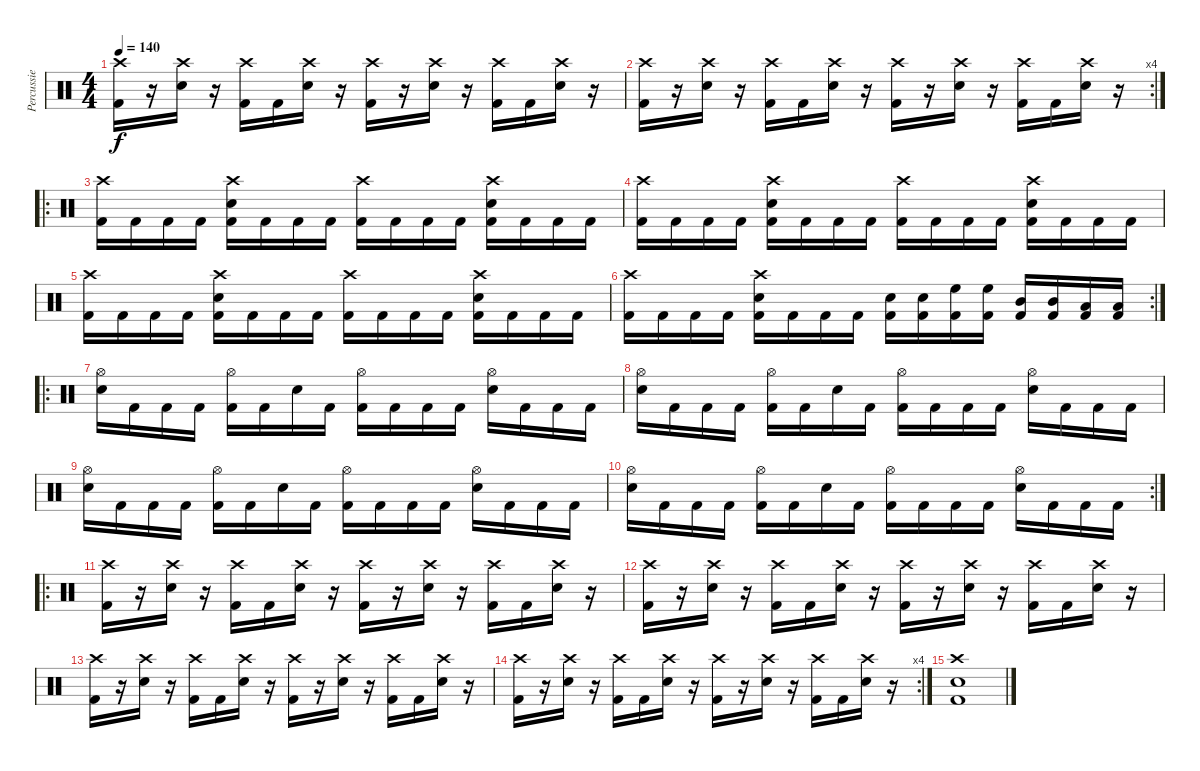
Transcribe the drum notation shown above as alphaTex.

\track ("Percussie" "Percussie") {instrument percussion}
\staff {score}
\articulation defaults
\ts (4 4)
\tempo 140
\clef neutral
\ks c
("Crash high (hit)" "Kick (hit) 2").16{dy f} r.16 ("Crash high (hit)" "Snare (hit) 2").16 r.16 ("Crash high (hit)" "Kick (hit) 2").16 "Kick (hit) 2".16 ("Crash high (hit)" "Snare (hit) 2").16 r.16 ("Crash high (hit)" "Kick (hit) 2").16 r.16 ("Crash high (hit)" "Snare (hit) 2").16 r.16 ("Crash high (hit)" "Kick (hit) 2").16 "Kick (hit) 2".16 ("Crash high (hit)" "Snare (hit) 2").16 r.16 |
\rc 4
("Crash high (hit)" "Kick (hit) 2").16 r.16 ("Crash high (hit)" "Snare (hit) 2").16 r.16 ("Crash high (hit)" "Kick (hit) 2").16 "Kick (hit) 2".16 ("Crash high (hit)" "Snare (hit) 2").16 r.16 ("Crash high (hit)" "Kick (hit) 2").16 r.16 ("Crash high (hit)" "Snare (hit) 2").16 r.16 ("Crash high (hit)" "Kick (hit) 2").16 "Kick (hit) 2".16 ("Crash high (hit)" "Snare (hit) 2").16 r.16 |
\ro
("Crash high (hit)" "Kick (hit) 2").16 "Kick (hit) 2".16 "Kick (hit) 2".16 "Kick (hit) 2".16 ("Crash high (hit)" "Snare (hit) 2" "Kick (hit) 2").16 "Kick (hit) 2".16 "Kick (hit) 2".16 "Kick (hit) 2".16 ("Crash high (hit)" "Kick (hit) 2").16 "Kick (hit) 2".16 "Kick (hit) 2".16 "Kick (hit) 2".16 ("Crash high (hit)" "Snare (hit) 2" "Kick (hit) 2").16 "Kick (hit) 2".16 "Kick (hit) 2".16 "Kick (hit) 2".16 |
("Crash high (hit)" "Kick (hit) 2").16 "Kick (hit) 2".16 "Kick (hit) 2".16 "Kick (hit) 2".16 ("Crash high (hit)" "Snare (hit) 2" "Kick (hit) 2").16 "Kick (hit) 2".16 "Kick (hit) 2".16 "Kick (hit) 2".16 ("Crash high (hit)" "Kick (hit) 2").16 "Kick (hit) 2".16 "Kick (hit) 2".16 "Kick (hit) 2".16 ("Crash high (hit)" "Snare (hit) 2" "Kick (hit) 2").16 "Kick (hit) 2".16 "Kick (hit) 2".16 "Kick (hit) 2".16 |
("Crash high (hit)" "Kick (hit) 2").16 "Kick (hit) 2".16 "Kick (hit) 2".16 "Kick (hit) 2".16 ("Crash high (hit)" "Snare (hit) 2" "Kick (hit) 2").16 "Kick (hit) 2".16 "Kick (hit) 2".16 "Kick (hit) 2".16 ("Crash high (hit)" "Kick (hit) 2").16 "Kick (hit) 2".16 "Kick (hit) 2".16 "Kick (hit) 2".16 ("Crash high (hit)" "Snare (hit) 2" "Kick (hit) 2").16 "Kick (hit) 2".16 "Kick (hit) 2".16 "Kick (hit) 2".16 |
\rc 2
("Crash high (hit)" "Kick (hit) 2").16 "Kick (hit) 2".16 "Kick (hit) 2".16 "Kick (hit) 2".16 ("Crash high (hit)" "Snare (hit) 2" "Kick (hit) 2").16 "Kick (hit) 2".16 "Kick (hit) 2".16 "Kick (hit) 2".16 ("Snare (hit) 2" "Kick (hit) 2").16 ("Snare (hit) 2" "Kick (hit) 2").16 ("High Floor Tom (hit)" "Kick (hit) 2").16 ("High Floor Tom (hit)" "Kick (hit) 2").16 ("Mid Tom (hit)" "Kick (hit) 2").16 ("Mid Tom (hit)" "Kick (hit) 2").16 ("Low Tom (hit)" "Kick (hit) 2").16 ("Low Floor Tom (hit)" "Kick (hit) 2").16 |
\ro
("Hi-Hat (open)" "Snare (hit) 2").16 "Kick (hit) 2".16 "Kick (hit) 2".16 "Kick (hit) 2".16 ("Hi-Hat (open)" "Kick (hit) 2").16 "Kick (hit) 2".16 "Snare (hit) 2".16 "Kick (hit) 2".16 ("Hi-Hat (open)" "Kick (hit) 2").16 "Kick (hit) 2".16 "Kick (hit) 2".16 "Kick (hit) 2".16 ("Hi-Hat (open)" "Snare (hit) 2").16 "Kick (hit) 2".16 "Kick (hit) 2".16 "Kick (hit) 2".16 |
("Hi-Hat (open)" "Snare (hit) 2").16 "Kick (hit) 2".16 "Kick (hit) 2".16 "Kick (hit) 2".16 ("Hi-Hat (open)" "Kick (hit) 2").16 "Kick (hit) 2".16 "Snare (hit) 2".16 "Kick (hit) 2".16 ("Hi-Hat (open)" "Kick (hit) 2").16 "Kick (hit) 2".16 "Kick (hit) 2".16 "Kick (hit) 2".16 ("Hi-Hat (open)" "Snare (hit) 2").16 "Kick (hit) 2".16 "Kick (hit) 2".16 "Kick (hit) 2".16 |
("Hi-Hat (open)" "Snare (hit) 2").16 "Kick (hit) 2".16 "Kick (hit) 2".16 "Kick (hit) 2".16 ("Hi-Hat (open)" "Kick (hit) 2").16 "Kick (hit) 2".16 "Snare (hit) 2".16 "Kick (hit) 2".16 ("Hi-Hat (open)" "Kick (hit) 2").16 "Kick (hit) 2".16 "Kick (hit) 2".16 "Kick (hit) 2".16 ("Hi-Hat (open)" "Snare (hit) 2").16 "Kick (hit) 2".16 "Kick (hit) 2".16 "Kick (hit) 2".16 |
\rc 2
("Hi-Hat (open)" "Snare (hit) 2").16 "Kick (hit) 2".16 "Kick (hit) 2".16 "Kick (hit) 2".16 ("Hi-Hat (open)" "Kick (hit) 2").16 "Kick (hit) 2".16 "Snare (hit) 2".16 "Kick (hit) 2".16 ("Hi-Hat (open)" "Kick (hit) 2").16 "Kick (hit) 2".16 "Kick (hit) 2".16 "Kick (hit) 2".16 ("Hi-Hat (open)" "Snare (hit) 2").16 "Kick (hit) 2".16 "Kick (hit) 2".16 "Kick (hit) 2".16 |
\ro
("Crash high (hit)" "Kick (hit) 2").16 r.16 ("Crash high (hit)" "Snare (hit) 2").16 r.16 ("Crash high (hit)" "Kick (hit) 2").16 "Kick (hit) 2".16 ("Crash high (hit)" "Snare (hit) 2").16 r.16 ("Crash high (hit)" "Kick (hit) 2").16 r.16 ("Crash high (hit)" "Snare (hit) 2").16 r.16 ("Crash high (hit)" "Kick (hit) 2").16 "Kick (hit) 2".16 ("Crash high (hit)" "Snare (hit) 2").16 r.16 |
("Crash high (hit)" "Kick (hit) 2").16 r.16 ("Crash high (hit)" "Snare (hit) 2").16 r.16 ("Crash high (hit)" "Kick (hit) 2").16 "Kick (hit) 2".16 ("Crash high (hit)" "Snare (hit) 2").16 r.16 ("Crash high (hit)" "Kick (hit) 2").16 r.16 ("Crash high (hit)" "Snare (hit) 2").16 r.16 ("Crash high (hit)" "Kick (hit) 2").16 "Kick (hit) 2".16 ("Crash high (hit)" "Snare (hit) 2").16 r.16 |
("Crash high (hit)" "Kick (hit) 2").16 r.16 ("Crash high (hit)" "Snare (hit) 2").16 r.16 ("Crash high (hit)" "Kick (hit) 2").16 "Kick (hit) 2".16 ("Crash high (hit)" "Snare (hit) 2").16 r.16 ("Crash high (hit)" "Kick (hit) 2").16 r.16 ("Crash high (hit)" "Snare (hit) 2").16 r.16 ("Crash high (hit)" "Kick (hit) 2").16 "Kick (hit) 2".16 ("Crash high (hit)" "Snare (hit) 2").16 r.16 |
\rc 4
("Crash high (hit)" "Kick (hit) 2").16 r.16 ("Crash high (hit)" "Snare (hit) 2").16 r.16 ("Crash high (hit)" "Kick (hit) 2").16 "Kick (hit) 2".16 ("Crash high (hit)" "Snare (hit) 2").16 r.16 ("Crash high (hit)" "Kick (hit) 2").16 r.16 ("Crash high (hit)" "Snare (hit) 2").16 r.16 ("Crash high (hit)" "Kick (hit) 2").16 "Kick (hit) 2".16 ("Crash high (hit)" "Snare (hit) 2").16 r.16 |
("Crash high (hit)" "Snare (hit) 2" "Kick (hit) 2").1
